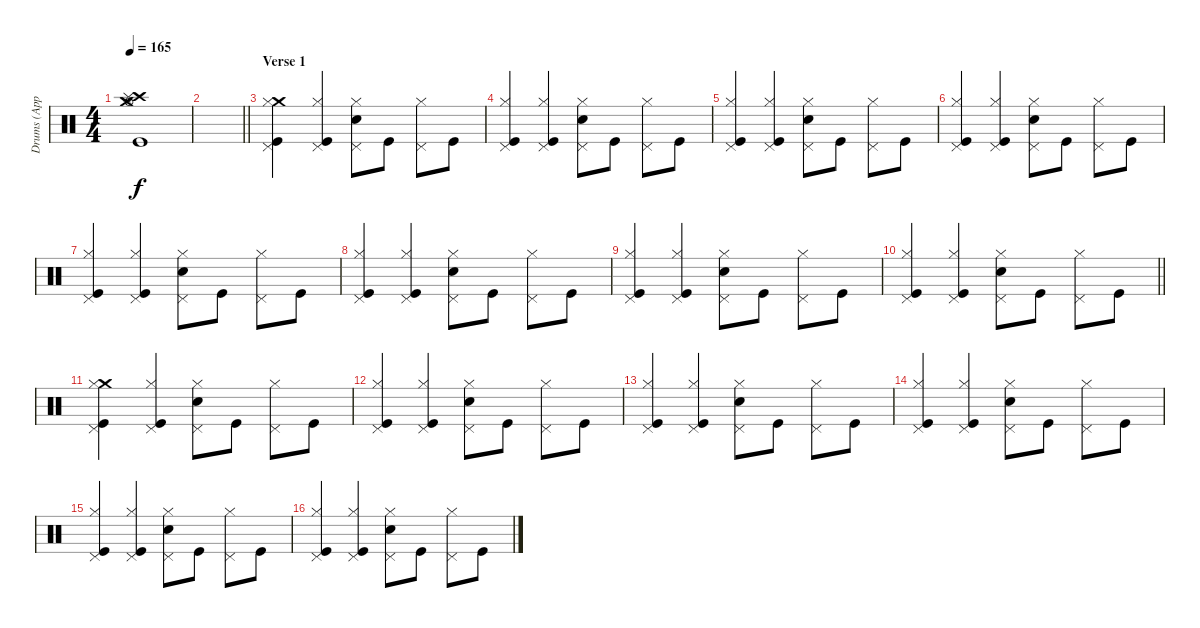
\track ("Drums (Approx.)" "Drums (App") {instrument percussion}
\staff {score}
\articulation defaults
\ts (4 4)
\tempo 165
\clef neutral
\ks c
("Crash high (hit)" "Crash medium (hit)" "Hi-Hat (open)" "Splash (hit)" "Kick (hit)").1{dy f} |
\barLineRight lightlight
|
\section ("" "Verse 1")
("Crash medium (hit)" "Hi-Hat (closed)" "Pedal Hi-Hat (hit)" "Kick (hit)").4 ("Hi-Hat (closed)" "Pedal Hi-Hat (hit)" "Kick (hit)").4 ("Hi-Hat (closed)" "Pedal Hi-Hat (hit)" "Electric Snare (hit)").8 "Kick (hit)".8 ("Hi-Hat (closed)" "Pedal Hi-Hat (hit)").8 "Kick (hit)".8 |
("Hi-Hat (closed)" "Pedal Hi-Hat (hit)" "Kick (hit)").4 ("Hi-Hat (closed)" "Pedal Hi-Hat (hit)" "Kick (hit)").4 ("Hi-Hat (closed)" "Pedal Hi-Hat (hit)" "Electric Snare (hit)").8 "Kick (hit)".8 ("Hi-Hat (closed)" "Pedal Hi-Hat (hit)").8 "Kick (hit)".8 |
("Hi-Hat (closed)" "Pedal Hi-Hat (hit)" "Kick (hit)").4 ("Hi-Hat (closed)" "Pedal Hi-Hat (hit)" "Kick (hit)").4 ("Hi-Hat (closed)" "Pedal Hi-Hat (hit)" "Electric Snare (hit)").8 "Kick (hit)".8 ("Hi-Hat (closed)" "Pedal Hi-Hat (hit)").8 "Kick (hit)".8 |
("Hi-Hat (closed)" "Pedal Hi-Hat (hit)" "Kick (hit)").4 ("Hi-Hat (closed)" "Pedal Hi-Hat (hit)" "Kick (hit)").4 ("Hi-Hat (closed)" "Pedal Hi-Hat (hit)" "Electric Snare (hit)").8 "Kick (hit)".8 ("Hi-Hat (closed)" "Pedal Hi-Hat (hit)").8 "Kick (hit)".8 |
("Hi-Hat (closed)" "Pedal Hi-Hat (hit)" "Kick (hit)").4 ("Hi-Hat (closed)" "Pedal Hi-Hat (hit)" "Kick (hit)").4 ("Hi-Hat (closed)" "Pedal Hi-Hat (hit)" "Electric Snare (hit)").8 "Kick (hit)".8 ("Hi-Hat (closed)" "Pedal Hi-Hat (hit)").8 "Kick (hit)".8 |
("Hi-Hat (closed)" "Pedal Hi-Hat (hit)" "Kick (hit)").4 ("Hi-Hat (closed)" "Pedal Hi-Hat (hit)" "Kick (hit)").4 ("Hi-Hat (closed)" "Pedal Hi-Hat (hit)" "Electric Snare (hit)").8 "Kick (hit)".8 ("Hi-Hat (closed)" "Pedal Hi-Hat (hit)").8 "Kick (hit)".8 |
("Hi-Hat (closed)" "Pedal Hi-Hat (hit)" "Kick (hit)").4 ("Hi-Hat (closed)" "Pedal Hi-Hat (hit)" "Kick (hit)").4 ("Hi-Hat (closed)" "Pedal Hi-Hat (hit)" "Electric Snare (hit)").8 "Kick (hit)".8 ("Hi-Hat (closed)" "Pedal Hi-Hat (hit)").8 "Kick (hit)".8 |
\barLineRight lightlight
("Hi-Hat (closed)" "Pedal Hi-Hat (hit)" "Kick (hit)").4 ("Hi-Hat (closed)" "Pedal Hi-Hat (hit)" "Kick (hit)").4 ("Hi-Hat (closed)" "Pedal Hi-Hat (hit)" "Electric Snare (hit)").8 "Kick (hit)".8 ("Hi-Hat (closed)" "Pedal Hi-Hat (hit)").8 "Kick (hit)".8 |
\section ("" "")
("Crash medium (hit)" "Hi-Hat (closed)" "Pedal Hi-Hat (hit)" "Kick (hit)").4 ("Hi-Hat (closed)" "Pedal Hi-Hat (hit)" "Kick (hit)").4 ("Hi-Hat (closed)" "Pedal Hi-Hat (hit)" "Electric Snare (hit)").8 "Kick (hit)".8 ("Hi-Hat (closed)" "Pedal Hi-Hat (hit)").8 "Kick (hit)".8 |
("Hi-Hat (closed)" "Pedal Hi-Hat (hit)" "Kick (hit)").4 ("Hi-Hat (closed)" "Pedal Hi-Hat (hit)" "Kick (hit)").4 ("Hi-Hat (closed)" "Pedal Hi-Hat (hit)" "Electric Snare (hit)").8 "Kick (hit)".8 ("Hi-Hat (closed)" "Pedal Hi-Hat (hit)").8 "Kick (hit)".8 |
("Hi-Hat (closed)" "Pedal Hi-Hat (hit)" "Kick (hit)").4 ("Hi-Hat (closed)" "Pedal Hi-Hat (hit)" "Kick (hit)").4 ("Hi-Hat (closed)" "Pedal Hi-Hat (hit)" "Electric Snare (hit)").8 "Kick (hit)".8 ("Hi-Hat (closed)" "Pedal Hi-Hat (hit)").8 "Kick (hit)".8 |
("Hi-Hat (closed)" "Pedal Hi-Hat (hit)" "Kick (hit)").4 ("Hi-Hat (closed)" "Pedal Hi-Hat (hit)" "Kick (hit)").4 ("Hi-Hat (closed)" "Pedal Hi-Hat (hit)" "Electric Snare (hit)").8 "Kick (hit)".8 ("Hi-Hat (closed)" "Pedal Hi-Hat (hit)").8 "Kick (hit)".8 |
("Hi-Hat (closed)" "Pedal Hi-Hat (hit)" "Kick (hit)").4 ("Hi-Hat (closed)" "Pedal Hi-Hat (hit)" "Kick (hit)").4 ("Hi-Hat (closed)" "Pedal Hi-Hat (hit)" "Electric Snare (hit)").8 "Kick (hit)".8 ("Hi-Hat (closed)" "Pedal Hi-Hat (hit)").8 "Kick (hit)".8 |
("Hi-Hat (closed)" "Pedal Hi-Hat (hit)" "Kick (hit)").4 ("Hi-Hat (closed)" "Pedal Hi-Hat (hit)" "Kick (hit)").4 ("Hi-Hat (closed)" "Pedal Hi-Hat (hit)" "Electric Snare (hit)").8 "Kick (hit)".8 ("Hi-Hat (closed)" "Pedal Hi-Hat (hit)").8 "Kick (hit)".8
